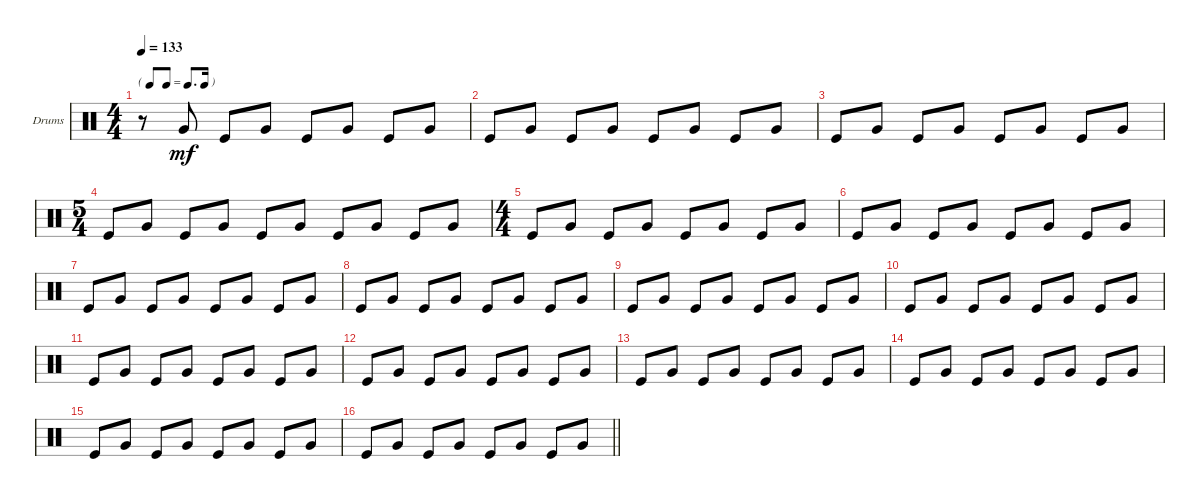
\defaultSystemsLayout 4
\bracketExtendMode groupsimilarinstruments
\firstSystemTrackNameOrientation horizontal
\otherSystemsTrackNameOrientation horizontal
\track ("Drumkit" "Drums") {instrument percussion}
\staff {score}
\articulation defaults
\ts (4 4)
\tf dotted8th
\tempo 133
\clef neutral
\scale
0.472222
\ks c
r.8{dy mf} "Very Low Tom (hit)".8 "Kick (hit)".8 "Very Low Tom (hit)".8 "Kick (hit)".8 "Very Low Tom (hit)".8 "Kick (hit)".8 "Very Low Tom (hit)".8 |
\scale
0.263889 "Kick (hit)".8 "Very Low Tom (hit)".8 "Kick (hit)".8 "Very Low Tom (hit)".8 "Kick (hit)".8 "Very Low Tom (hit)".8 "Kick (hit)".8 "Very Low Tom (hit)".8 |
\scale
0.263889 "Kick (hit)".8 "Very Low Tom (hit)".8 "Kick (hit)".8 "Very Low Tom (hit)".8 "Kick (hit)".8 "Very Low Tom (hit)".8 "Kick (hit)".8 "Very Low Tom (hit)".8 |
\ts (5 4)
"Kick (hit)".8 "Very Low Tom (hit)".8 "Kick (hit)".8 "Very Low Tom (hit)".8 "Kick (hit)".8 "Very Low Tom (hit)".8 "Kick (hit)".8 "Very Low Tom (hit)".8 "Kick (hit)".8 "Very Low Tom (hit)".8 |
\ts (4 4)
"Kick (hit)".8 "Very Low Tom (hit)".8 "Kick (hit)".8 "Very Low Tom (hit)".8 "Kick (hit)".8 "Very Low Tom (hit)".8 "Kick (hit)".8 "Very Low Tom (hit)".8 |
"Kick (hit)".8 "Very Low Tom (hit)".8 "Kick (hit)".8 "Very Low Tom (hit)".8 "Kick (hit)".8 "Very Low Tom (hit)".8 "Kick (hit)".8 "Very Low Tom (hit)".8 |
"Kick (hit)".8 "Very Low Tom (hit)".8 "Kick (hit)".8 "Very Low Tom (hit)".8 "Kick (hit)".8 "Very Low Tom (hit)".8 "Kick (hit)".8 "Very Low Tom (hit)".8 |
"Kick (hit)".8 "Very Low Tom (hit)".8 "Kick (hit)".8 "Very Low Tom (hit)".8 "Kick (hit)".8 "Very Low Tom (hit)".8 "Kick (hit)".8 "Very Low Tom (hit)".8 |
"Kick (hit)".8 "Very Low Tom (hit)".8 "Kick (hit)".8 "Very Low Tom (hit)".8 "Kick (hit)".8 "Very Low Tom (hit)".8 "Kick (hit)".8 "Very Low Tom (hit)".8 |
"Kick (hit)".8 "Very Low Tom (hit)".8 "Kick (hit)".8 "Very Low Tom (hit)".8 "Kick (hit)".8 "Very Low Tom (hit)".8 "Kick (hit)".8 "Very Low Tom (hit)".8 |
"Kick (hit)".8 "Very Low Tom (hit)".8 "Kick (hit)".8 "Very Low Tom (hit)".8 "Kick (hit)".8 "Very Low Tom (hit)".8 "Kick (hit)".8 "Very Low Tom (hit)".8 |
"Kick (hit)".8 "Very Low Tom (hit)".8 "Kick (hit)".8 "Very Low Tom (hit)".8 "Kick (hit)".8 "Very Low Tom (hit)".8 "Kick (hit)".8 "Very Low Tom (hit)".8 |
"Kick (hit)".8 "Very Low Tom (hit)".8 "Kick (hit)".8 "Very Low Tom (hit)".8 "Kick (hit)".8 "Very Low Tom (hit)".8 "Kick (hit)".8 "Very Low Tom (hit)".8 |
"Kick (hit)".8 "Very Low Tom (hit)".8 "Kick (hit)".8 "Very Low Tom (hit)".8 "Kick (hit)".8 "Very Low Tom (hit)".8 "Kick (hit)".8 "Very Low Tom (hit)".8 |
"Kick (hit)".8 "Very Low Tom (hit)".8 "Kick (hit)".8 "Very Low Tom (hit)".8 "Kick (hit)".8 "Very Low Tom (hit)".8 "Kick (hit)".8 "Very Low Tom (hit)".8 |
\barLineRight lightlight "Kick (hit)".8 "Very Low Tom (hit)".8 "Kick (hit)".8 "Very Low Tom (hit)".8 "Kick (hit)".8 "Very Low Tom (hit)".8 "Kick (hit)".8 "Very Low Tom (hit)".8
